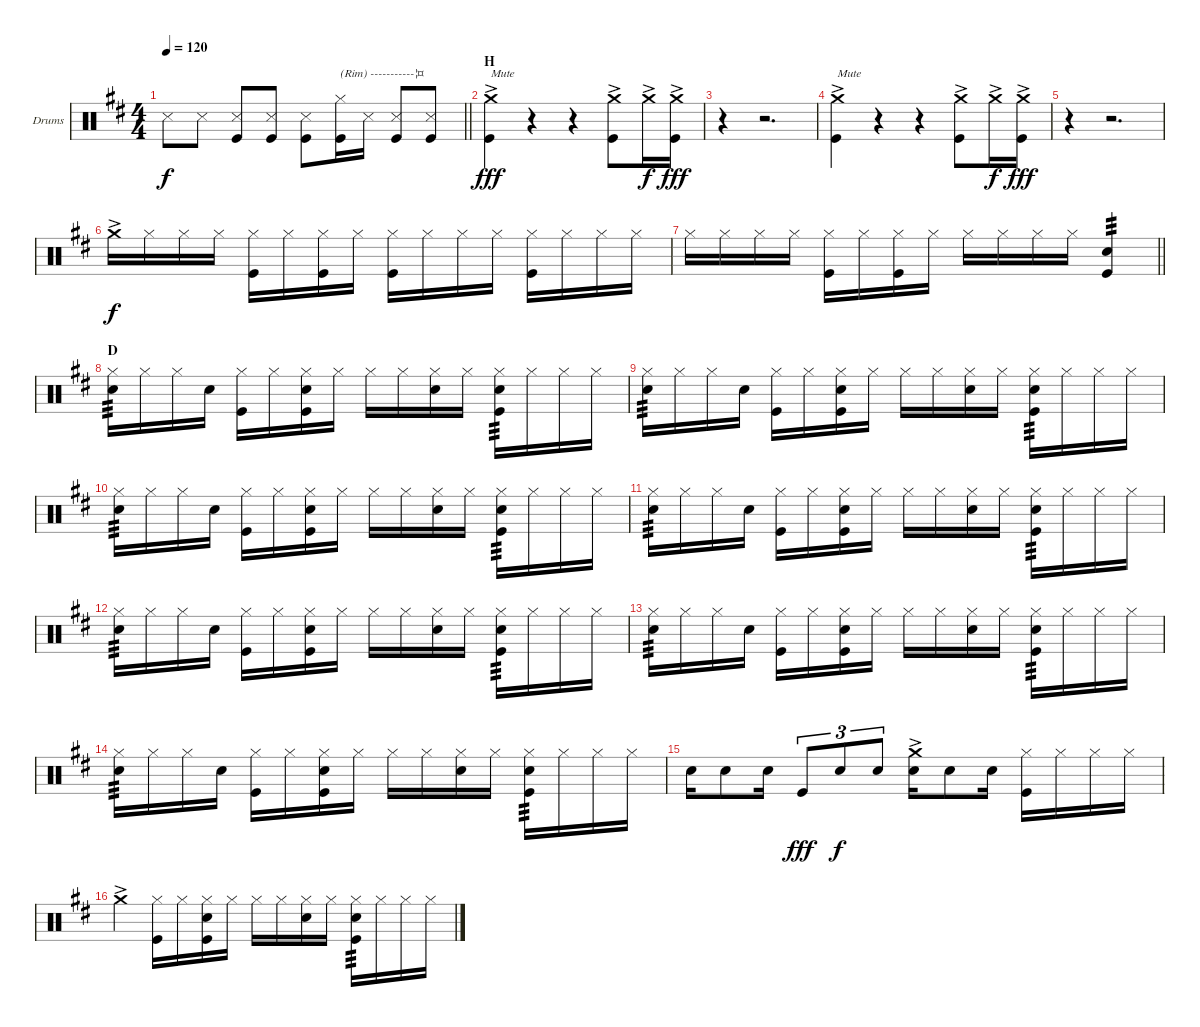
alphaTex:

\bracketExtendMode groupsimilarinstruments
\firstSystemTrackNameOrientation horizontal
\otherSystemsTrackNameOrientation horizontal
\track ("Drumkit" "Drums") {instrument percussion}
\staff {score}
\articulation defaults
\ts (4 4)
\tempo 120
\clef neutral
\barLineRight lightlight
\ks d "Snare (side stick) 3".8{dy f} "Snare (side stick) 3".8
("Snare (side stick) 3" "Kick (hit)").8 ("Snare (side stick) 3" "Kick (hit)").8 ("Snare (side stick) 3" "Kick (hit)").8 ("Hi-Hat (closed)" "Kick (hit)").16{txt "(Rim) -----------¦¤"} "Snare (side stick) 3".16 ("Snare (side stick) 3" "Kick (hit)").8 ("Snare (side stick) 3" "Kick (hit)").8 |
\section ("" "H")
("Crash medium (hit)"{ac} "Kick (hit)").4{txt "Mute" dy fff} r.4 r.4 ("Crash medium (hit)"{ac} "Kick (hit)").8 "Crash medium (hit)"{ac}.16{dy f} ("Crash medium (hit)"{ac} "Kick (hit)").16{dy fff} |
r.4 r.2{d} |
("Crash medium (hit)"{ac} "Kick (hit)").4{txt "Mute"} r.4 r.4 ("Crash medium (hit)"{ac} "Kick (hit)").8 "Crash medium (hit)"{ac}.16{dy f} ("Crash medium (hit)"{ac} "Kick (hit)").16{dy fff} |
r.4 r.2{d} |
"Crash medium (hit)"{ac}.16{dy f} "Hi-Hat (closed)".16 "Hi-Hat (closed)".16 "Hi-Hat (closed)".16 ("Hi-Hat (closed)" "Kick (hit)").16 "Hi-Hat (closed)".16 ("Hi-Hat (closed)" "Kick (hit)").16 "Hi-Hat (closed)".16 ("Hi-Hat (closed)" "Kick (hit)").16 "Hi-Hat (closed)".16 "Hi-Hat (closed)".16 "Hi-Hat (closed)".16 ("Hi-Hat (closed)" "Kick (hit)").16 "Hi-Hat (closed)".16 "Hi-Hat (closed)".16 "Hi-Hat (closed)".16 |
\barLineRight lightlight "Hi-Hat (closed)".16 "Hi-Hat (closed)".16 "Hi-Hat (closed)".16 "Hi-Hat (closed)".16
("Hi-Hat (closed)" "Kick (hit)").16 "Hi-Hat (closed)".16 ("Hi-Hat (closed)" "Kick (hit)").16 "Hi-Hat (closed)".16 "Hi-Hat (closed)".16 "Hi-Hat (closed)".16 "Hi-Hat (closed)".16 "Hi-Hat (closed)".16 ("Snare (hit) 2" "Kick (hit)").4{tp 3} |
\section ("" "D")
("Hi-Hat (closed)" "Snare (hit) 2").16{tp 3} "Hi-Hat (closed)".16 "Hi-Hat (closed)".16 "Snare (hit) 2".16 ("Hi-Hat (closed)" "Kick (hit)").16 "Hi-Hat (closed)".16 ("Hi-Hat (closed)" "Snare (hit) 2" "Kick (hit)").16 "Hi-Hat (closed)".16 "Hi-Hat (closed)".16 "Hi-Hat (closed)".16 ("Hi-Hat (closed)" "Snare (hit) 2").16 "Hi-Hat (closed)".16 ("Hi-Hat (closed)" "Snare (hit) 2" "Kick (hit)").16{tp 3} "Hi-Hat (closed)".16 "Hi-Hat (closed)".16 "Hi-Hat (closed)".16 |
("Hi-Hat (closed)" "Snare (hit) 2").16{tp 3} "Hi-Hat (closed)".16 "Hi-Hat (closed)".16 "Snare (hit) 2".16 ("Hi-Hat (closed)" "Kick (hit)").16 "Hi-Hat (closed)".16 ("Hi-Hat (closed)" "Snare (hit) 2" "Kick (hit)").16 "Hi-Hat (closed)".16 "Hi-Hat (closed)".16 "Hi-Hat (closed)".16 ("Hi-Hat (closed)" "Snare (hit) 2").16 "Hi-Hat (closed)".16 ("Hi-Hat (closed)" "Snare (hit) 2" "Kick (hit)").16{tp 3} "Hi-Hat (closed)".16 "Hi-Hat (closed)".16 "Hi-Hat (closed)".16 |
("Hi-Hat (closed)" "Snare (hit) 2").16{tp 3} "Hi-Hat (closed)".16 "Hi-Hat (closed)".16 "Snare (hit) 2".16 ("Hi-Hat (closed)" "Kick (hit)").16 "Hi-Hat (closed)".16 ("Hi-Hat (closed)" "Snare (hit) 2" "Kick (hit)").16 "Hi-Hat (closed)".16 "Hi-Hat (closed)".16 "Hi-Hat (closed)".16 ("Hi-Hat (closed)" "Snare (hit) 2").16 "Hi-Hat (closed)".16 ("Hi-Hat (closed)" "Snare (hit) 2" "Kick (hit)").16{tp 3} "Hi-Hat (closed)".16 "Hi-Hat (closed)".16 "Hi-Hat (closed)".16 |
("Hi-Hat (closed)" "Snare (hit) 2").16{tp 3} "Hi-Hat (closed)".16 "Hi-Hat (closed)".16 "Snare (hit) 2".16 ("Hi-Hat (closed)" "Kick (hit)").16 "Hi-Hat (closed)".16 ("Hi-Hat (closed)" "Snare (hit) 2" "Kick (hit)").16 "Hi-Hat (closed)".16 "Hi-Hat (closed)".16 "Hi-Hat (closed)".16 ("Hi-Hat (closed)" "Snare (hit) 2").16 "Hi-Hat (closed)".16 ("Hi-Hat (closed)" "Snare (hit) 2" "Kick (hit)").16{tp 3} "Hi-Hat (closed)".16 "Hi-Hat (closed)".16 "Hi-Hat (closed)".16 |
("Hi-Hat (closed)" "Snare (hit) 2").16{tp 3} "Hi-Hat (closed)".16 "Hi-Hat (closed)".16 "Snare (hit) 2".16 ("Hi-Hat (closed)" "Kick (hit)").16 "Hi-Hat (closed)".16 ("Hi-Hat (closed)" "Snare (hit) 2" "Kick (hit)").16 "Hi-Hat (closed)".16 "Hi-Hat (closed)".16 "Hi-Hat (closed)".16 ("Hi-Hat (closed)" "Snare (hit) 2").16 "Hi-Hat (closed)".16 ("Hi-Hat (closed)" "Snare (hit) 2" "Kick (hit)").16{tp 3} "Hi-Hat (closed)".16 "Hi-Hat (closed)".16 "Hi-Hat (closed)".16 |
("Hi-Hat (closed)" "Snare (hit) 2").16{tp 3} "Hi-Hat (closed)".16 "Hi-Hat (closed)".16 "Snare (hit) 2".16 ("Hi-Hat (closed)" "Kick (hit)").16 "Hi-Hat (closed)".16 ("Hi-Hat (closed)" "Snare (hit) 2" "Kick (hit)").16 "Hi-Hat (closed)".16 "Hi-Hat (closed)".16 "Hi-Hat (closed)".16 ("Hi-Hat (closed)" "Snare (hit) 2").16 "Hi-Hat (closed)".16 ("Hi-Hat (closed)" "Snare (hit) 2" "Kick (hit)").16{tp 3} "Hi-Hat (closed)".16 "Hi-Hat (closed)".16 "Hi-Hat (closed)".16 |
("Hi-Hat (closed)" "Snare (hit) 2").16{tp 3} "Hi-Hat (closed)".16 "Hi-Hat (closed)".16 "Snare (hit) 2".16 ("Hi-Hat (closed)" "Kick (hit)").16 "Hi-Hat (closed)".16 ("Hi-Hat (closed)" "Snare (hit) 2" "Kick (hit)").16 "Hi-Hat (closed)".16 "Hi-Hat (closed)".16 "Hi-Hat (closed)".16 ("Hi-Hat (closed)" "Snare (hit) 2").16 "Hi-Hat (closed)".16 ("Hi-Hat (closed)" "Snare (hit) 2" "Kick (hit)").16{tp 3} "Hi-Hat (closed)".16 "Hi-Hat (closed)".16 "Hi-Hat (closed)".16 |
"Snare (hit) 2".16 "Snare (hit) 2".8 "Snare (hit) 2".16 "Kick (hit)".8{tu (3 2) dy fff} "Snare (hit) 2".8{tu (3 2) dy f} "Snare (hit) 2".8{tu (3 2)} ("Crash medium (hit)"{ac} "Snare (hit) 2").16 "Snare (hit) 2".8 "Snare (hit) 2".16 ("Hi-Hat (closed)" "Kick (hit)").16 "Hi-Hat (closed)".16 "Hi-Hat (closed)".16 "Hi-Hat (closed)".16 |
"Crash medium (hit)"{ac}.4 ("Hi-Hat (closed)" "Kick (hit)").16 "Hi-Hat (closed)".16 ("Hi-Hat (closed)" "Snare (hit) 2" "Kick (hit)").16 "Hi-Hat (closed)".16 "Hi-Hat (closed)".16 "Hi-Hat (closed)".16 ("Hi-Hat (closed)" "Snare (hit) 2").16 "Hi-Hat (closed)".16 ("Hi-Hat (closed)" "Snare (hit) 2" "Kick (hit)").16{tp 3} "Hi-Hat (closed)".16 "Hi-Hat (closed)".16 "Hi-Hat (closed)".16
